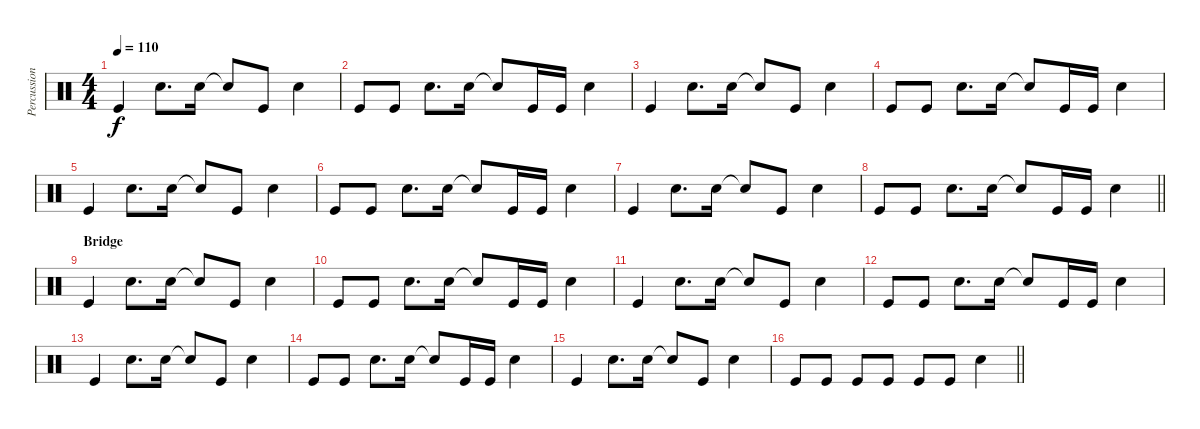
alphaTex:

\track ("Percussion" "Percussion") {instrument percussion}
\staff {score}
\articulation defaults
\ts (4 4)
\tempo 110
\clef neutral
\ks c "Kick (hit)".4{dy f} "Snare (hit) 2".8{d} "Snare (hit) 2".16 "Snare (hit) 2"{t}.8 "Kick (hit)".8 "Snare (hit) 2".4
|
"Kick (hit)".8 "Kick (hit)".8 "Snare (hit) 2".8{d} "Snare (hit) 2".16 "Snare (hit) 2"{t}.8 "Kick (hit)".16 "Kick (hit)".16 "Snare (hit) 2".4 |
"Kick (hit)".4 "Snare (hit) 2".8{d} "Snare (hit) 2".16 "Snare (hit) 2"{t}.8 "Kick (hit)".8 "Snare (hit) 2".4 |
"Kick (hit)".8 "Kick (hit)".8 "Snare (hit) 2".8{d} "Snare (hit) 2".16 "Snare (hit) 2"{t}.8 "Kick (hit)".16 "Kick (hit)".16 "Snare (hit) 2".4 |
"Kick (hit)".4 "Snare (hit) 2".8{d} "Snare (hit) 2".16 "Snare (hit) 2"{t}.8 "Kick (hit)".8 "Snare (hit) 2".4 |
"Kick (hit)".8 "Kick (hit)".8 "Snare (hit) 2".8{d} "Snare (hit) 2".16 "Snare (hit) 2"{t}.8 "Kick (hit)".16 "Kick (hit)".16 "Snare (hit) 2".4 |
"Kick (hit)".4 "Snare (hit) 2".8{d} "Snare (hit) 2".16 "Snare (hit) 2"{t}.8 "Kick (hit)".8 "Snare (hit) 2".4 |
\barLineRight lightlight "Kick (hit)".8 "Kick (hit)".8 "Snare (hit) 2".8{d} "Snare (hit) 2".16 "Snare (hit) 2"{t}.8 "Kick (hit)".16 "Kick (hit)".16 "Snare (hit) 2".4
|
\section ("" "Bridge")
"Kick (hit)".4 "Snare (hit) 2".8{d} "Snare (hit) 2".16 "Snare (hit) 2"{t}.8 "Kick (hit)".8 "Snare (hit) 2".4 |
"Kick (hit)".8 "Kick (hit)".8 "Snare (hit) 2".8{d} "Snare (hit) 2".16 "Snare (hit) 2"{t}.8 "Kick (hit)".16 "Kick (hit)".16 "Snare (hit) 2".4 |
"Kick (hit)".4 "Snare (hit) 2".8{d} "Snare (hit) 2".16 "Snare (hit) 2"{t}.8 "Kick (hit)".8 "Snare (hit) 2".4 |
"Kick (hit)".8 "Kick (hit)".8 "Snare (hit) 2".8{d} "Snare (hit) 2".16 "Snare (hit) 2"{t}.8 "Kick (hit)".16 "Kick (hit)".16 "Snare (hit) 2".4 |
"Kick (hit)".4 "Snare (hit) 2".8{d} "Snare (hit) 2".16 "Snare (hit) 2"{t}.8 "Kick (hit)".8 "Snare (hit) 2".4 |
"Kick (hit)".8 "Kick (hit)".8 "Snare (hit) 2".8{d} "Snare (hit) 2".16 "Snare (hit) 2"{t}.8 "Kick (hit)".16 "Kick (hit)".16 "Snare (hit) 2".4 |
"Kick (hit)".4 "Snare (hit) 2".8{d} "Snare (hit) 2".16 "Snare (hit) 2"{t}.8 "Kick (hit)".8 "Snare (hit) 2".4 |
\barLineRight lightlight "Kick (hit)".8 "Kick (hit)".8 "Kick (hit)".8 "Kick (hit)".8 "Kick (hit)".8 "Kick (hit)".8 "Snare (hit) 2".4
